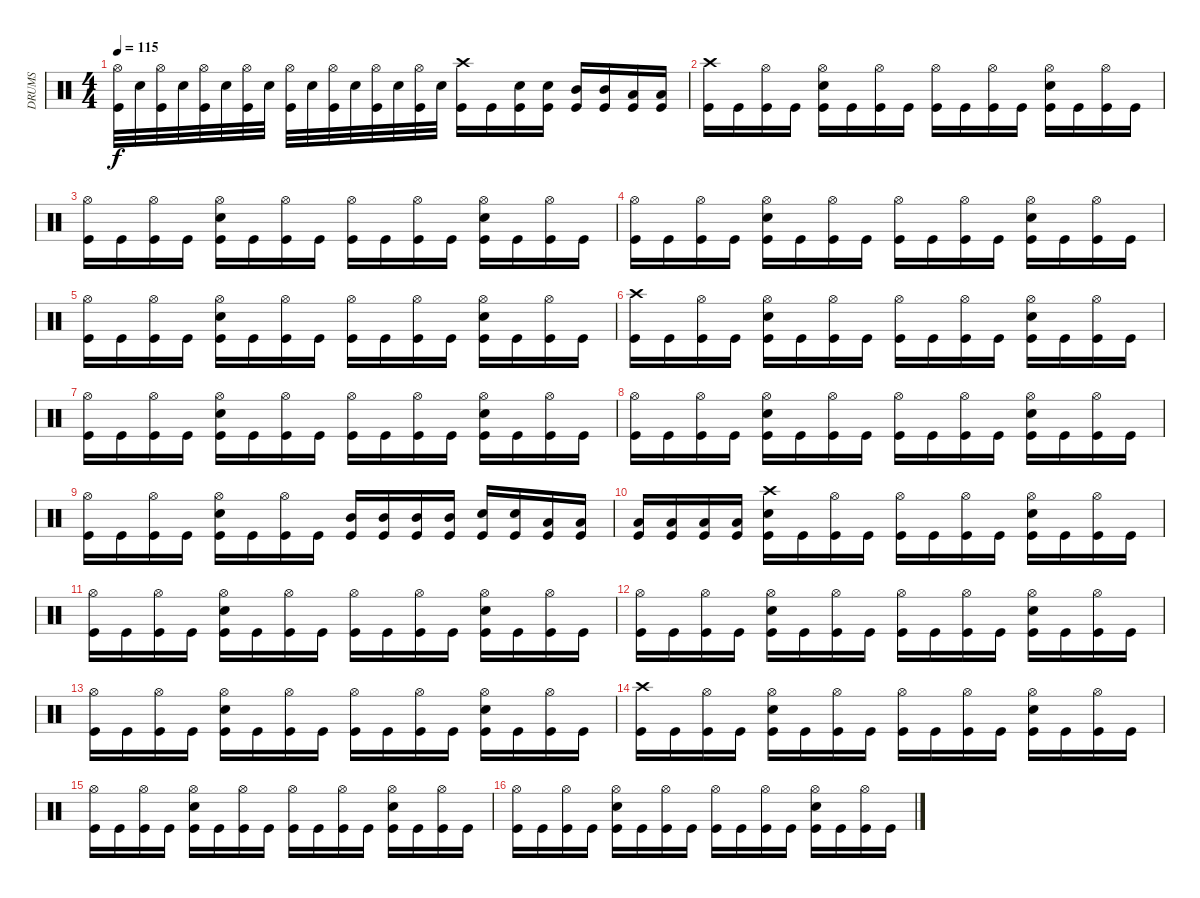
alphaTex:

\track ("DRUMS" "DRUMS") {instrument percussion}
\staff {score}
\articulation defaults
\ts (4 4)
\tempo 115
\clef neutral
\ks c
("Hi-Hat (open)" "Kick (hit)").32{dy f} "Snare (hit) 2".32 ("Hi-Hat (open)" "Kick (hit)").32 "Snare (hit) 2".32 ("Hi-Hat (open)" "Kick (hit)").32 "Snare (hit) 2".32 ("Hi-Hat (open)" "Kick (hit)").32 "Snare (hit) 2".32 ("Hi-Hat (open)" "Kick (hit)").32 "Snare (hit) 2".32 ("Hi-Hat (open)" "Kick (hit)").32 "Snare (hit) 2".32 ("Hi-Hat (open)" "Kick (hit)").32 "Snare (hit) 2".32 ("Hi-Hat (open)" "Kick (hit)").32 "Snare (hit) 2".32 ("Crash high (hit)" "Kick (hit)").16 "Kick (hit)".16 ("Snare (hit) 2" "Kick (hit)").16 ("Snare (hit) 2" "Kick (hit)").16 ("Mid Tom (hit)" "Kick (hit)").16 ("Mid Tom (hit)" "Kick (hit)").16 ("Low Tom (hit)" "Kick (hit)").16 ("Low Tom (hit)" "Kick (hit)").16 |
("Crash high (hit)" "Kick (hit)").16 "Kick (hit)".16 ("Hi-Hat (open)" "Kick (hit)").16 "Kick (hit)".16 ("Hi-Hat (open)" "Snare (hit) 2" "Kick (hit)").16 "Kick (hit)".16 ("Hi-Hat (open)" "Kick (hit)").16 "Kick (hit)".16 ("Hi-Hat (open)" "Kick (hit)").16 "Kick (hit)".16 ("Hi-Hat (open)" "Kick (hit)").16 "Kick (hit)".16 ("Hi-Hat (open)" "Snare (hit) 2" "Kick (hit)").16 "Kick (hit)".16 ("Hi-Hat (open)" "Kick (hit)").16 "Kick (hit)".16 |
("Hi-Hat (open)" "Kick (hit)").16 "Kick (hit)".16 ("Hi-Hat (open)" "Kick (hit)").16 "Kick (hit)".16 ("Hi-Hat (open)" "Snare (hit) 2" "Kick (hit)").16 "Kick (hit)".16 ("Hi-Hat (open)" "Kick (hit)").16 "Kick (hit)".16 ("Hi-Hat (open)" "Kick (hit)").16 "Kick (hit)".16 ("Hi-Hat (open)" "Kick (hit)").16 "Kick (hit)".16 ("Hi-Hat (open)" "Snare (hit) 2" "Kick (hit)").16 "Kick (hit)".16 ("Hi-Hat (open)" "Kick (hit)").16 "Kick (hit)".16 |
("Hi-Hat (open)" "Kick (hit)").16 "Kick (hit)".16 ("Hi-Hat (open)" "Kick (hit)").16 "Kick (hit)".16 ("Hi-Hat (open)" "Snare (hit) 2" "Kick (hit)").16 "Kick (hit)".16 ("Hi-Hat (open)" "Kick (hit)").16 "Kick (hit)".16 ("Hi-Hat (open)" "Kick (hit)").16 "Kick (hit)".16 ("Hi-Hat (open)" "Kick (hit)").16 "Kick (hit)".16 ("Hi-Hat (open)" "Snare (hit) 2" "Kick (hit)").16 "Kick (hit)".16 ("Hi-Hat (open)" "Kick (hit)").16 "Kick (hit)".16 |
("Hi-Hat (open)" "Kick (hit)").16 "Kick (hit)".16 ("Hi-Hat (open)" "Kick (hit)").16 "Kick (hit)".16 ("Hi-Hat (open)" "Snare (hit) 2" "Kick (hit)").16 "Kick (hit)".16 ("Hi-Hat (open)" "Kick (hit)").16 "Kick (hit)".16 ("Hi-Hat (open)" "Kick (hit)").16 "Kick (hit)".16 ("Hi-Hat (open)" "Kick (hit)").16 "Kick (hit)".16 ("Hi-Hat (open)" "Snare (hit) 2" "Kick (hit)").16 "Kick (hit)".16 ("Hi-Hat (open)" "Kick (hit)").16 "Kick (hit)".16 |
("Crash high (hit)" "Kick (hit)").16 "Kick (hit)".16 ("Hi-Hat (open)" "Kick (hit)").16 "Kick (hit)".16 ("Hi-Hat (open)" "Snare (hit) 2" "Kick (hit)").16 "Kick (hit)".16 ("Hi-Hat (open)" "Kick (hit)").16 "Kick (hit)".16 ("Hi-Hat (open)" "Kick (hit)").16 "Kick (hit)".16 ("Hi-Hat (open)" "Kick (hit)").16 "Kick (hit)".16 ("Hi-Hat (open)" "Snare (hit) 2" "Kick (hit)").16 "Kick (hit)".16 ("Hi-Hat (open)" "Kick (hit)").16 "Kick (hit)".16 |
("Hi-Hat (open)" "Kick (hit)").16 "Kick (hit)".16 ("Hi-Hat (open)" "Kick (hit)").16 "Kick (hit)".16 ("Hi-Hat (open)" "Snare (hit) 2" "Kick (hit)").16 "Kick (hit)".16 ("Hi-Hat (open)" "Kick (hit)").16 "Kick (hit)".16 ("Hi-Hat (open)" "Kick (hit)").16 "Kick (hit)".16 ("Hi-Hat (open)" "Kick (hit)").16 "Kick (hit)".16 ("Hi-Hat (open)" "Snare (hit) 2" "Kick (hit)").16 "Kick (hit)".16 ("Hi-Hat (open)" "Kick (hit)").16 "Kick (hit)".16 |
("Hi-Hat (open)" "Kick (hit)").16 "Kick (hit)".16 ("Hi-Hat (open)" "Kick (hit)").16 "Kick (hit)".16 ("Hi-Hat (open)" "Snare (hit) 2" "Kick (hit)").16 "Kick (hit)".16 ("Hi-Hat (open)" "Kick (hit)").16 "Kick (hit)".16 ("Hi-Hat (open)" "Kick (hit)").16 "Kick (hit)".16 ("Hi-Hat (open)" "Kick (hit)").16 "Kick (hit)".16 ("Hi-Hat (open)" "Snare (hit) 2" "Kick (hit)").16 "Kick (hit)".16 ("Hi-Hat (open)" "Kick (hit)").16 "Kick (hit)".16 |
("Hi-Hat (open)" "Kick (hit)").16 "Kick (hit)".16 ("Hi-Hat (open)" "Kick (hit)").16 "Kick (hit)".16 ("Hi-Hat (open)" "Snare (hit) 2" "Kick (hit)").16 "Kick (hit)".16 ("Hi-Hat (open)" "Kick (hit)").16 "Kick (hit)".16 ("Mid Tom (hit)" "Kick (hit)").16 ("Mid Tom (hit)" "Kick (hit)").16 ("Mid Tom (hit)" "Kick (hit)").16 ("Mid Tom (hit)" "Kick (hit)").16 ("Snare (hit) 2" "Kick (hit)").16 ("Snare (hit) 2" "Kick (hit)").16 ("Low Tom (hit)" "Kick (hit)").16 ("Low Tom (hit)" "Kick (hit)").16 |
("Low Tom (hit)" "Kick (hit)").16 ("Low Tom (hit)" "Kick (hit)").16 ("Low Tom (hit)" "Kick (hit)").16 ("Low Tom (hit)" "Kick (hit)").16 ("Crash high (hit)" "Snare (hit) 2" "Kick (hit)").16 "Kick (hit)".16 ("Hi-Hat (open)" "Kick (hit)").16 "Kick (hit)".16 ("Hi-Hat (open)" "Kick (hit)").16 "Kick (hit)".16 ("Hi-Hat (open)" "Kick (hit)").16 "Kick (hit)".16 ("Hi-Hat (open)" "Snare (hit) 2" "Kick (hit)").16 "Kick (hit)".16 ("Hi-Hat (open)" "Kick (hit)").16 "Kick (hit)".16 |
("Hi-Hat (open)" "Kick (hit)").16 "Kick (hit)".16 ("Hi-Hat (open)" "Kick (hit)").16 "Kick (hit)".16 ("Hi-Hat (open)" "Snare (hit) 2" "Kick (hit)").16 "Kick (hit)".16 ("Hi-Hat (open)" "Kick (hit)").16 "Kick (hit)".16 ("Hi-Hat (open)" "Kick (hit)").16 "Kick (hit)".16 ("Hi-Hat (open)" "Kick (hit)").16 "Kick (hit)".16 ("Hi-Hat (open)" "Snare (hit) 2" "Kick (hit)").16 "Kick (hit)".16 ("Hi-Hat (open)" "Kick (hit)").16 "Kick (hit)".16 |
("Hi-Hat (open)" "Kick (hit)").16 "Kick (hit)".16 ("Hi-Hat (open)" "Kick (hit)").16 "Kick (hit)".16 ("Hi-Hat (open)" "Snare (hit) 2" "Kick (hit)").16 "Kick (hit)".16 ("Hi-Hat (open)" "Kick (hit)").16 "Kick (hit)".16 ("Hi-Hat (open)" "Kick (hit)").16 "Kick (hit)".16 ("Hi-Hat (open)" "Kick (hit)").16 "Kick (hit)".16 ("Hi-Hat (open)" "Snare (hit) 2" "Kick (hit)").16 "Kick (hit)".16 ("Hi-Hat (open)" "Kick (hit)").16 "Kick (hit)".16 |
("Hi-Hat (open)" "Kick (hit)").16 "Kick (hit)".16 ("Hi-Hat (open)" "Kick (hit)").16 "Kick (hit)".16 ("Hi-Hat (open)" "Snare (hit) 2" "Kick (hit)").16 "Kick (hit)".16 ("Hi-Hat (open)" "Kick (hit)").16 "Kick (hit)".16 ("Hi-Hat (open)" "Kick (hit)").16 "Kick (hit)".16 ("Hi-Hat (open)" "Kick (hit)").16 "Kick (hit)".16 ("Hi-Hat (open)" "Snare (hit) 2" "Kick (hit)").16 "Kick (hit)".16 ("Hi-Hat (open)" "Kick (hit)").16 "Kick (hit)".16 |
("Crash high (hit)" "Kick (hit)").16 "Kick (hit)".16 ("Hi-Hat (open)" "Kick (hit)").16 "Kick (hit)".16 ("Hi-Hat (open)" "Snare (hit) 2" "Kick (hit)").16 "Kick (hit)".16 ("Hi-Hat (open)" "Kick (hit)").16 "Kick (hit)".16 ("Hi-Hat (open)" "Kick (hit)").16 "Kick (hit)".16 ("Hi-Hat (open)" "Kick (hit)").16 "Kick (hit)".16 ("Hi-Hat (open)" "Snare (hit) 2" "Kick (hit)").16 "Kick (hit)".16 ("Hi-Hat (open)" "Kick (hit)").16 "Kick (hit)".16 |
("Hi-Hat (open)" "Kick (hit)").16 "Kick (hit)".16 ("Hi-Hat (open)" "Kick (hit)").16 "Kick (hit)".16 ("Hi-Hat (open)" "Snare (hit) 2" "Kick (hit)").16 "Kick (hit)".16 ("Hi-Hat (open)" "Kick (hit)").16 "Kick (hit)".16 ("Hi-Hat (open)" "Kick (hit)").16 "Kick (hit)".16 ("Hi-Hat (open)" "Kick (hit)").16 "Kick (hit)".16 ("Hi-Hat (open)" "Snare (hit) 2" "Kick (hit)").16 "Kick (hit)".16 ("Hi-Hat (open)" "Kick (hit)").16 "Kick (hit)".16 |
("Hi-Hat (open)" "Kick (hit)").16 "Kick (hit)".16 ("Hi-Hat (open)" "Kick (hit)").16 "Kick (hit)".16 ("Hi-Hat (open)" "Snare (hit) 2" "Kick (hit)").16 "Kick (hit)".16 ("Hi-Hat (open)" "Kick (hit)").16 "Kick (hit)".16 ("Hi-Hat (open)" "Kick (hit)").16 "Kick (hit)".16 ("Hi-Hat (open)" "Kick (hit)").16 "Kick (hit)".16 ("Hi-Hat (open)" "Snare (hit) 2" "Kick (hit)").16 "Kick (hit)".16 ("Hi-Hat (open)" "Kick (hit)").16 "Kick (hit)".16
